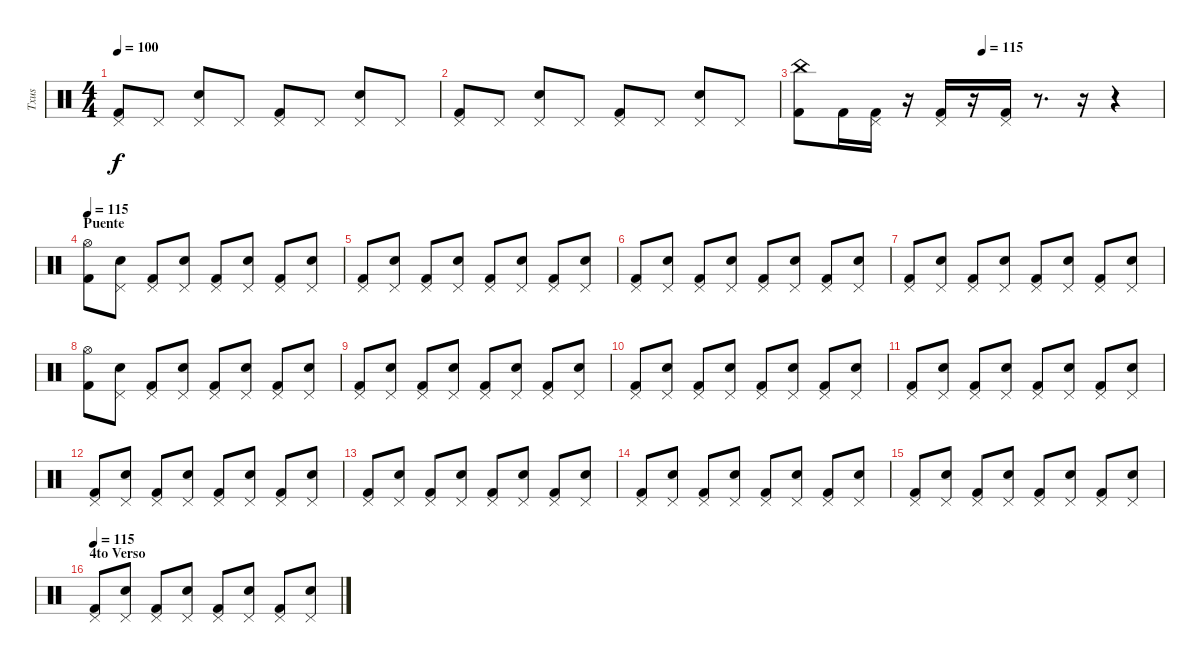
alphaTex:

\track ("Txus" "Txus") {instrument percussion}
\staff {score}
\articulation defaults
\ts (4 4)
\tempo 100
\clef neutral
\ks c
("Pedal Hi-Hat (hit)" "Kick (hit) 2").8{dy f} "Pedal Hi-Hat (hit)".8 ("Pedal Hi-Hat (hit)" "Snare (hit) 2").8 "Pedal Hi-Hat (hit)".8 ("Pedal Hi-Hat (hit)" "Kick (hit) 2").8 "Pedal Hi-Hat (hit)".8 ("Pedal Hi-Hat (hit)" "Snare (hit) 2").8 "Pedal Hi-Hat (hit)".8 |
("Pedal Hi-Hat (hit)" "Kick (hit) 2").8 "Pedal Hi-Hat (hit)".8 ("Pedal Hi-Hat (hit)" "Snare (hit) 2").8 "Pedal Hi-Hat (hit)".8 ("Pedal Hi-Hat (hit)" "Kick (hit) 2").8 "Pedal Hi-Hat (hit)".8 ("Pedal Hi-Hat (hit)" "Snare (hit) 2").8 "Pedal Hi-Hat (hit)".8 |
\tempo (115 0.5)
("China (hit)" "Kick (hit) 2").8 "Kick (hit) 2".16 ("Pedal Hi-Hat (hit)" "Kick (hit) 2").16 r.16 ("Pedal Hi-Hat (hit)" "Kick (hit) 2").16 r.16 ("Pedal Hi-Hat (hit)" "Kick (hit) 2").16 r.8{d} r.16 r.4 |
\section ("" "Puente")
\tempo 115
("Hi-Hat (open)" "Kick (hit) 2").8 ("Pedal Hi-Hat (hit)" "Snare (hit) 2").8 ("Pedal Hi-Hat (hit)" "Kick (hit) 2").8 ("Pedal Hi-Hat (hit)" "Snare (hit) 2").8 ("Pedal Hi-Hat (hit)" "Kick (hit) 2").8 ("Pedal Hi-Hat (hit)" "Snare (hit) 2").8 ("Pedal Hi-Hat (hit)" "Kick (hit) 2").8 ("Pedal Hi-Hat (hit)" "Snare (hit) 2").8 |
("Pedal Hi-Hat (hit)" "Kick (hit) 2").8 ("Pedal Hi-Hat (hit)" "Snare (hit) 2").8 ("Pedal Hi-Hat (hit)" "Kick (hit) 2").8 ("Pedal Hi-Hat (hit)" "Snare (hit) 2").8 ("Pedal Hi-Hat (hit)" "Kick (hit) 2").8 ("Pedal Hi-Hat (hit)" "Snare (hit) 2").8 ("Pedal Hi-Hat (hit)" "Kick (hit) 2").8 ("Pedal Hi-Hat (hit)" "Snare (hit) 2").8 |
("Pedal Hi-Hat (hit)" "Kick (hit) 2").8 ("Pedal Hi-Hat (hit)" "Snare (hit) 2").8 ("Pedal Hi-Hat (hit)" "Kick (hit) 2").8 ("Pedal Hi-Hat (hit)" "Snare (hit) 2").8 ("Pedal Hi-Hat (hit)" "Kick (hit) 2").8 ("Pedal Hi-Hat (hit)" "Snare (hit) 2").8 ("Pedal Hi-Hat (hit)" "Kick (hit) 2").8 ("Pedal Hi-Hat (hit)" "Snare (hit) 2").8 |
("Pedal Hi-Hat (hit)" "Kick (hit) 2").8 ("Pedal Hi-Hat (hit)" "Snare (hit) 2").8 ("Pedal Hi-Hat (hit)" "Kick (hit) 2").8 ("Pedal Hi-Hat (hit)" "Snare (hit) 2").8 ("Pedal Hi-Hat (hit)" "Kick (hit) 2").8 ("Pedal Hi-Hat (hit)" "Snare (hit) 2").8 ("Pedal Hi-Hat (hit)" "Kick (hit) 2").8 ("Pedal Hi-Hat (hit)" "Snare (hit) 2").8 |
("Hi-Hat (open)" "Kick (hit) 2").8 ("Pedal Hi-Hat (hit)" "Snare (hit) 2").8 ("Pedal Hi-Hat (hit)" "Kick (hit) 2").8 ("Pedal Hi-Hat (hit)" "Snare (hit) 2").8 ("Pedal Hi-Hat (hit)" "Kick (hit) 2").8 ("Pedal Hi-Hat (hit)" "Snare (hit) 2").8 ("Pedal Hi-Hat (hit)" "Kick (hit) 2").8 ("Pedal Hi-Hat (hit)" "Snare (hit) 2").8 |
("Pedal Hi-Hat (hit)" "Kick (hit) 2").8 ("Pedal Hi-Hat (hit)" "Snare (hit) 2").8 ("Pedal Hi-Hat (hit)" "Kick (hit) 2").8 ("Pedal Hi-Hat (hit)" "Snare (hit) 2").8 ("Pedal Hi-Hat (hit)" "Kick (hit) 2").8 ("Pedal Hi-Hat (hit)" "Snare (hit) 2").8 ("Pedal Hi-Hat (hit)" "Kick (hit) 2").8 ("Pedal Hi-Hat (hit)" "Snare (hit) 2").8 |
("Pedal Hi-Hat (hit)" "Kick (hit) 2").8 ("Pedal Hi-Hat (hit)" "Snare (hit) 2").8 ("Pedal Hi-Hat (hit)" "Kick (hit) 2").8 ("Pedal Hi-Hat (hit)" "Snare (hit) 2").8 ("Pedal Hi-Hat (hit)" "Kick (hit) 2").8 ("Pedal Hi-Hat (hit)" "Snare (hit) 2").8 ("Pedal Hi-Hat (hit)" "Kick (hit) 2").8 ("Pedal Hi-Hat (hit)" "Snare (hit) 2").8 |
("Pedal Hi-Hat (hit)" "Kick (hit) 2").8 ("Pedal Hi-Hat (hit)" "Snare (hit) 2").8 ("Pedal Hi-Hat (hit)" "Kick (hit) 2").8 ("Pedal Hi-Hat (hit)" "Snare (hit) 2").8 ("Pedal Hi-Hat (hit)" "Kick (hit) 2").8 ("Pedal Hi-Hat (hit)" "Snare (hit) 2").8 ("Pedal Hi-Hat (hit)" "Kick (hit) 2").8 ("Pedal Hi-Hat (hit)" "Snare (hit) 2").8 |
("Pedal Hi-Hat (hit)" "Kick (hit) 2").8 ("Pedal Hi-Hat (hit)" "Snare (hit) 2").8 ("Pedal Hi-Hat (hit)" "Kick (hit) 2").8 ("Pedal Hi-Hat (hit)" "Snare (hit) 2").8 ("Pedal Hi-Hat (hit)" "Kick (hit) 2").8 ("Pedal Hi-Hat (hit)" "Snare (hit) 2").8 ("Pedal Hi-Hat (hit)" "Kick (hit) 2").8 ("Pedal Hi-Hat (hit)" "Snare (hit) 2").8 |
("Pedal Hi-Hat (hit)" "Kick (hit) 2").8 ("Pedal Hi-Hat (hit)" "Snare (hit) 2").8 ("Pedal Hi-Hat (hit)" "Kick (hit) 2").8 ("Pedal Hi-Hat (hit)" "Snare (hit) 2").8 ("Pedal Hi-Hat (hit)" "Kick (hit) 2").8 ("Pedal Hi-Hat (hit)" "Snare (hit) 2").8 ("Pedal Hi-Hat (hit)" "Kick (hit) 2").8 ("Pedal Hi-Hat (hit)" "Snare (hit) 2").8 |
("Pedal Hi-Hat (hit)" "Kick (hit) 2").8 ("Pedal Hi-Hat (hit)" "Snare (hit) 2").8 ("Pedal Hi-Hat (hit)" "Kick (hit) 2").8 ("Pedal Hi-Hat (hit)" "Snare (hit) 2").8 ("Pedal Hi-Hat (hit)" "Kick (hit) 2").8 ("Pedal Hi-Hat (hit)" "Snare (hit) 2").8 ("Pedal Hi-Hat (hit)" "Kick (hit) 2").8 ("Pedal Hi-Hat (hit)" "Snare (hit) 2").8 |
("Pedal Hi-Hat (hit)" "Kick (hit) 2").8 ("Pedal Hi-Hat (hit)" "Snare (hit) 2").8 ("Pedal Hi-Hat (hit)" "Kick (hit) 2").8 ("Pedal Hi-Hat (hit)" "Snare (hit) 2").8 ("Pedal Hi-Hat (hit)" "Kick (hit) 2").8 ("Pedal Hi-Hat (hit)" "Snare (hit) 2").8 ("Pedal Hi-Hat (hit)" "Kick (hit) 2").8 ("Pedal Hi-Hat (hit)" "Snare (hit) 2").8 |
\section ("" "4to Verso")
\tempo 115
("Pedal Hi-Hat (hit)" "Kick (hit) 2").8 ("Pedal Hi-Hat (hit)" "Snare (hit) 2").8 ("Pedal Hi-Hat (hit)" "Kick (hit) 2").8 ("Pedal Hi-Hat (hit)" "Snare (hit) 2").8 ("Pedal Hi-Hat (hit)" "Kick (hit) 2").8 ("Pedal Hi-Hat (hit)" "Snare (hit) 2").8 ("Pedal Hi-Hat (hit)" "Kick (hit) 2").8 ("Pedal Hi-Hat (hit)" "Snare (hit) 2").8
